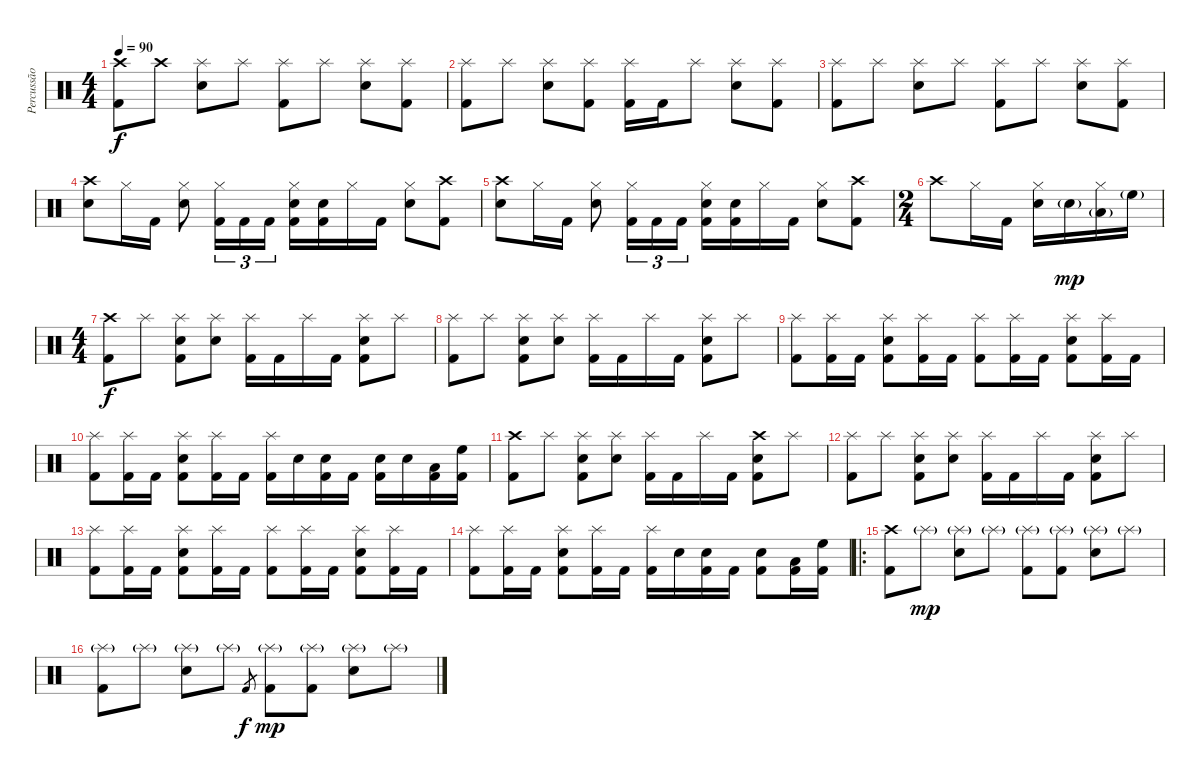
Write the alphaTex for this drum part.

\track ("Percussão" "Percussão") {instrument percussion}
\staff {score}
\articulation defaults
\ts (4 4)
\tempo 90
\clef neutral
\ks c
("Kick (hit) 2" "Crash high (hit)").8{dy f} "Crash high (hit)".8 ("Snare (hit) 2" "Splash (hit)").8 "Splash (hit)".8 ("Kick (hit) 2" "Splash (hit)").8 "Splash (hit)".8 ("Snare (hit) 2" "Splash (hit)").8 ("Kick (hit) 2" "Splash (hit)").8 |
("Kick (hit) 2" "Splash (hit)").8 "Splash (hit)".8 ("Snare (hit) 2" "Splash (hit)").8 ("Kick (hit) 2" "Splash (hit)").8 ("Kick (hit) 2" "Splash (hit)").16 "Kick (hit) 2".16 "Splash (hit)".8 ("Snare (hit) 2" "Splash (hit)").8 ("Kick (hit) 2" "Splash (hit)").8 |
("Kick (hit) 2" "Splash (hit)").8 "Splash (hit)".8 ("Snare (hit) 2" "Splash (hit)").8 "Splash (hit)".8 ("Kick (hit) 2" "Splash (hit)").8 "Splash (hit)".8 ("Snare (hit) 2" "Splash (hit)").8 ("Kick (hit) 2" "Splash (hit)").8 |
("Snare (hit) 2" "Crash high (hit)").8 "Hi-Hat (closed)".16 "Kick (hit) 2".16 ("Snare (hit) 2" "Hi-Hat (closed)").8 ("Kick (hit) 2" "Hi-Hat (closed)").16{tu (3 2)} "Kick (hit) 2".16{tu (3 2)} "Kick (hit) 2".16{tu (3 2)} ("Kick (hit) 2" "Snare (hit) 2" "Hi-Hat (closed)").16 ("Kick (hit) 2" "Snare (hit) 2").16 "Hi-Hat (closed)".16 "Kick (hit) 2".16 ("Snare (hit) 2" "Hi-Hat (closed)").8 ("Kick (hit) 2" "Crash high (hit)").8 |
("Snare (hit) 2" "Crash high (hit)").8 "Hi-Hat (closed)".16 "Kick (hit) 2".16 ("Snare (hit) 2" "Hi-Hat (closed)").8 ("Kick (hit) 2" "Hi-Hat (closed)").16{tu (3 2)} "Kick (hit) 2".16{tu (3 2)} "Kick (hit) 2".16{tu (3 2)} ("Kick (hit) 2" "Snare (hit) 2" "Hi-Hat (closed)").16 ("Kick (hit) 2" "Snare (hit) 2").16 "Hi-Hat (closed)".16 "Kick (hit) 2".16 ("Snare (hit) 2" "Hi-Hat (closed)").8 ("Kick (hit) 2" "Crash high (hit)").8 |
\ts (2 4)
"Crash high (hit)".8 "Hi-Hat (closed)".16 "Kick (hit) 2".16 ("Snare (hit) 2" "Hi-Hat (closed)").16 "Snare (hit) 2"{g}.16{dy mp} ("Low Tom (hit)"{g} "Hi-Hat (closed)").16 "High Floor Tom (hit)"{g}.16 |
\ts (4 4)
("Kick (hit) 2" "Crash high (hit)").8{dy f} "Splash (hit)".8 ("Kick (hit) 2" "Snare (hit) 2" "Splash (hit)").8 ("Snare (hit) 2" "Splash (hit)").8 ("Kick (hit) 2" "Splash (hit)").16 "Kick (hit) 2".16 "Splash (hit)".16 "Kick (hit) 2".16 ("Kick (hit) 2" "Snare (hit) 2" "Splash (hit)").8 "Splash (hit)".8 |
("Kick (hit) 2" "Splash (hit)").8 "Splash (hit)".8 ("Kick (hit) 2" "Snare (hit) 2" "Splash (hit)").8 ("Snare (hit) 2" "Splash (hit)").8 ("Kick (hit) 2" "Splash (hit)").16 "Kick (hit) 2".16 "Splash (hit)".16 "Kick (hit) 2".16 ("Kick (hit) 2" "Snare (hit) 2" "Splash (hit)").8 "Splash (hit)".8 |
("Kick (hit) 2" "Splash (hit)").8 ("Kick (hit) 2" "Splash (hit)").16 "Kick (hit) 2".16 ("Kick (hit) 2" "Snare (hit) 2" "Splash (hit)").8 ("Kick (hit) 2" "Splash (hit)").16 "Kick (hit) 2".16 ("Kick (hit) 2" "Splash (hit)").8 ("Kick (hit) 2" "Splash (hit)").16 "Kick (hit) 2".16 ("Kick (hit) 2" "Snare (hit) 2" "Splash (hit)").8 ("Kick (hit) 2" "Splash (hit)").16 "Kick (hit) 2".16 |
("Kick (hit) 2" "Splash (hit)").8 ("Kick (hit) 2" "Splash (hit)").16 "Kick (hit) 2".16 ("Kick (hit) 2" "Snare (hit) 2" "Splash (hit)").8 ("Kick (hit) 2" "Splash (hit)").16 "Kick (hit) 2".16 ("Kick (hit) 2" "Splash (hit)").16 "Snare (hit) 2".16 ("Kick (hit) 2" "Snare (hit) 2").16 "Kick (hit) 2".16 ("Kick (hit) 2" "Snare (hit) 2").16 "Snare (hit) 2".16 ("Kick (hit) 2" "Low Tom (hit)").16 ("Kick (hit) 2" "High Floor Tom (hit)").16 |
("Kick (hit) 2" "Crash high (hit)").8 "Splash (hit)".8 ("Kick (hit) 2" "Snare (hit) 2" "Splash (hit)").8 ("Snare (hit) 2" "Splash (hit)").8 ("Kick (hit) 2" "Splash (hit)").16 "Kick (hit) 2".16 "Splash (hit)".16 "Kick (hit) 2".16 ("Kick (hit) 2" "Snare (hit) 2" "Crash high (hit)").8 "Splash (hit)".8 |
("Kick (hit) 2" "Splash (hit)").8 "Splash (hit)".8 ("Kick (hit) 2" "Snare (hit) 2" "Splash (hit)").8 ("Snare (hit) 2" "Splash (hit)").8 ("Kick (hit) 2" "Splash (hit)").16 "Kick (hit) 2".16 "Splash (hit)".16 "Kick (hit) 2".16 ("Kick (hit) 2" "Snare (hit) 2" "Splash (hit)").8 "Splash (hit)".8 |
("Kick (hit) 2" "Splash (hit)").8 ("Kick (hit) 2" "Splash (hit)").16 "Kick (hit) 2".16 ("Kick (hit) 2" "Snare (hit) 2" "Splash (hit)").8 ("Kick (hit) 2" "Splash (hit)").16 "Kick (hit) 2".16 ("Kick (hit) 2" "Splash (hit)").8 ("Kick (hit) 2" "Splash (hit)").16 "Kick (hit) 2".16 ("Kick (hit) 2" "Snare (hit) 2" "Splash (hit)").8 ("Kick (hit) 2" "Splash (hit)").16 "Kick (hit) 2".16 |
("Kick (hit) 2" "Splash (hit)").8 ("Kick (hit) 2" "Splash (hit)").16 "Kick (hit) 2".16 ("Kick (hit) 2" "Snare (hit) 2" "Splash (hit)").8 ("Kick (hit) 2" "Splash (hit)").16 "Kick (hit) 2".16 ("Kick (hit) 2" "Splash (hit)").16 "Snare (hit) 2".16 ("Kick (hit) 2" "Snare (hit) 2").16 "Kick (hit) 2".16 ("Kick (hit) 2" "Snare (hit) 2").8 ("Kick (hit) 2" "Low Tom (hit)").16 ("Kick (hit) 2" "High Floor Tom (hit)").16 |
\ro
("Kick (hit) 2" "Crash high (hit)").8 "Splash (hit)"{g}.8{dy mp} ("Snare (hit) 2" "Splash (hit)"{g}).8 "Splash (hit)"{g}.8 ("Kick (hit) 2" "Splash (hit)"{g}).8 ("Kick (hit) 2" "Splash (hit)"{g}).8 ("Snare (hit) 2" "Splash (hit)"{g}).8 "Splash (hit)"{g}.8 |
("Kick (hit) 2" "Splash (hit)"{g}).8 "Splash (hit)"{g}.8 ("Snare (hit) 2" "Splash (hit)"{g}).8 "Splash (hit)"{g}.8 "Kick (hit) 2".8{gr dy f} ("Kick (hit) 2" "Splash (hit)"{g}).8{dy mp} ("Kick (hit) 2" "Splash (hit)"{g}).8 ("Snare (hit) 2" "Splash (hit)"{g}).8 "Splash (hit)"{g}.8
